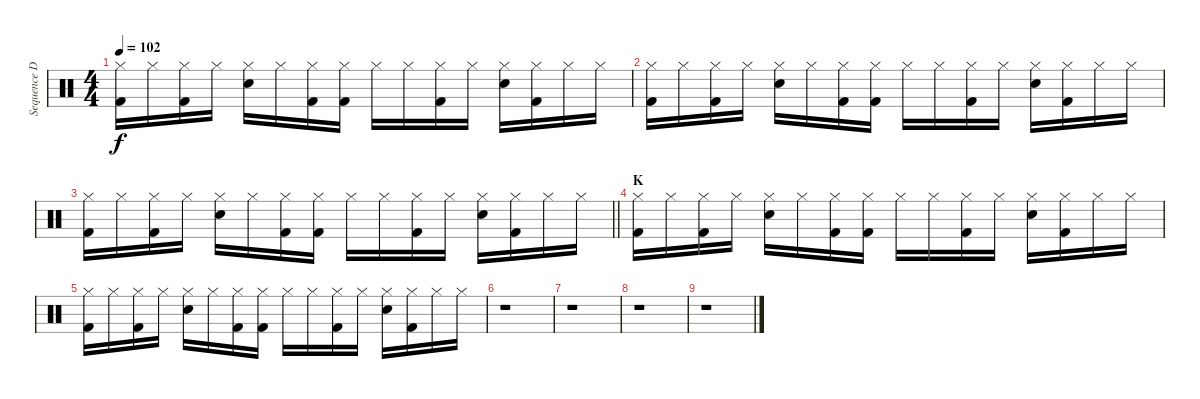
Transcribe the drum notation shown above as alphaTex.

\track ("Sequence Drums" "Sequence D") {instrument percussion}
\staff {score}
\articulation defaults
\ts (4 4)
\tempo 102
\clef neutral
\ks c
("Hi-Hat (closed)" "Kick (hit) 2").16{dy f} "Hi-Hat (closed)".16 ("Hi-Hat (closed)" "Kick (hit) 2").16 "Hi-Hat (closed)".16 ("Hi-Hat (closed)" "Electric Snare (hit)").16 "Hi-Hat (closed)".16 ("Hi-Hat (closed)" "Kick (hit) 2").16 ("Hi-Hat (closed)" "Kick (hit) 2").16 "Hi-Hat (closed)".16 "Hi-Hat (closed)".16 ("Hi-Hat (closed)" "Kick (hit) 2").16 "Hi-Hat (closed)".16 ("Hi-Hat (closed)" "Electric Snare (hit)").16 ("Hi-Hat (closed)" "Kick (hit) 2").16 "Hi-Hat (closed)".16 "Hi-Hat (closed)".16 |
("Hi-Hat (closed)" "Kick (hit) 2").16 "Hi-Hat (closed)".16 ("Hi-Hat (closed)" "Kick (hit) 2").16 "Hi-Hat (closed)".16 ("Hi-Hat (closed)" "Electric Snare (hit)").16 "Hi-Hat (closed)".16 ("Hi-Hat (closed)" "Kick (hit) 2").16 ("Hi-Hat (closed)" "Kick (hit) 2").16 "Hi-Hat (closed)".16 "Hi-Hat (closed)".16 ("Hi-Hat (closed)" "Kick (hit) 2").16 "Hi-Hat (closed)".16 ("Hi-Hat (closed)" "Electric Snare (hit)").16 ("Hi-Hat (closed)" "Kick (hit) 2").16 "Hi-Hat (closed)".16 "Hi-Hat (closed)".16 |
\barLineRight lightlight
("Hi-Hat (closed)" "Kick (hit) 2").16 "Hi-Hat (closed)".16 ("Hi-Hat (closed)" "Kick (hit) 2").16 "Hi-Hat (closed)".16 ("Hi-Hat (closed)" "Electric Snare (hit)").16 "Hi-Hat (closed)".16 ("Hi-Hat (closed)" "Kick (hit) 2").16 ("Hi-Hat (closed)" "Kick (hit) 2").16 "Hi-Hat (closed)".16 "Hi-Hat (closed)".16 ("Hi-Hat (closed)" "Kick (hit) 2").16 "Hi-Hat (closed)".16 ("Hi-Hat (closed)" "Electric Snare (hit)").16 ("Hi-Hat (closed)" "Kick (hit) 2").16 "Hi-Hat (closed)".16 "Hi-Hat (closed)".16 |
\section ("" "K")
("Hi-Hat (closed)" "Kick (hit) 2").16 "Hi-Hat (closed)".16 ("Hi-Hat (closed)" "Kick (hit) 2").16 "Hi-Hat (closed)".16 ("Hi-Hat (closed)" "Electric Snare (hit)").16 "Hi-Hat (closed)".16 ("Hi-Hat (closed)" "Kick (hit) 2").16 ("Hi-Hat (closed)" "Kick (hit) 2").16 "Hi-Hat (closed)".16 "Hi-Hat (closed)".16 ("Hi-Hat (closed)" "Kick (hit) 2").16 "Hi-Hat (closed)".16 ("Hi-Hat (closed)" "Electric Snare (hit)").16 ("Hi-Hat (closed)" "Kick (hit) 2").16 "Hi-Hat (closed)".16 "Hi-Hat (closed)".16 |
("Hi-Hat (closed)" "Kick (hit) 2").16 "Hi-Hat (closed)".16 ("Hi-Hat (closed)" "Kick (hit) 2").16 "Hi-Hat (closed)".16 ("Hi-Hat (closed)" "Electric Snare (hit)").16 "Hi-Hat (closed)".16 ("Hi-Hat (closed)" "Kick (hit) 2").16 ("Hi-Hat (closed)" "Kick (hit) 2").16 "Hi-Hat (closed)".16 "Hi-Hat (closed)".16 ("Hi-Hat (closed)" "Kick (hit) 2").16 "Hi-Hat (closed)".16 ("Hi-Hat (closed)" "Electric Snare (hit)").16 ("Hi-Hat (closed)" "Kick (hit) 2").16 "Hi-Hat (closed)".16 "Hi-Hat (closed)".16 |
r.1 |
r.1 |
r.1 |
r.1
